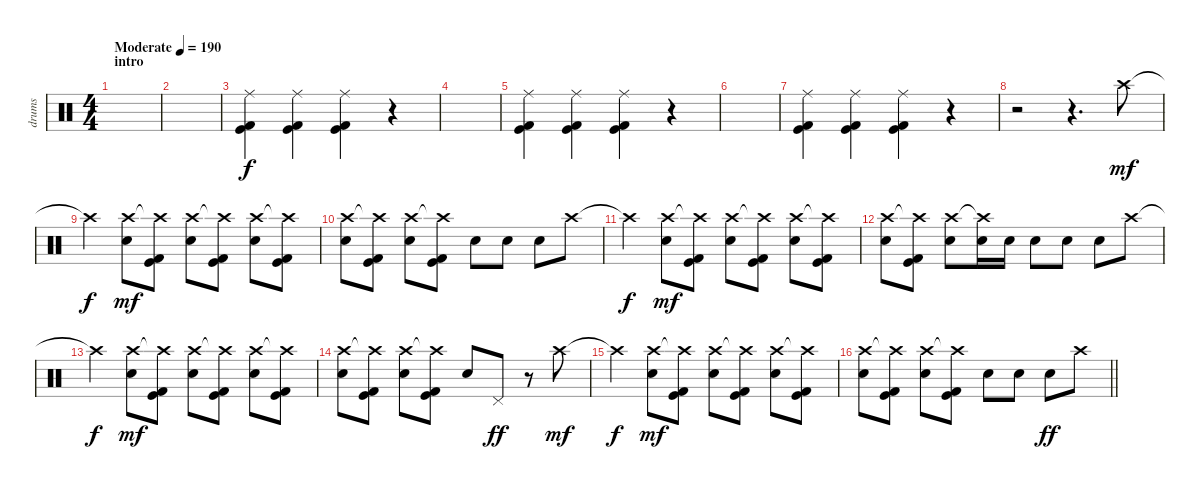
\track ("drums" "drums") {instrument percussion}
\staff {score}
\articulation defaults
\ts (4 4)
\section ("" "intro")
\tempo (190 "Moderate")
\clef neutral
\ks c
|
|
("Ride (middle)" "Kick (hit)" "Kick (hit) 2").4 ("Ride (middle)" "Kick (hit)" "Kick (hit) 2").4 ("Ride (middle)" "Kick (hit)" "Kick (hit) 2").4 r.4 |
|
("Ride (middle)" "Kick (hit)" "Kick (hit) 2").4 ("Ride (middle)" "Kick (hit)" "Kick (hit) 2").4 ("Ride (middle)" "Kick (hit)" "Kick (hit) 2").4 r.4 |
|
("Ride (middle)" "Kick (hit)" "Kick (hit) 2").4 ("Ride (middle)" "Kick (hit)" "Kick (hit) 2").4 ("Ride (middle)" "Kick (hit)" "Kick (hit) 2").4 r.4 |
r.2 r.4{d} "Crash high (hit)".8{dy mf} |
"Crash high (hit)"{t}.4{dy f} ("Crash high (hit)" "Electric Snare (hit)").8{dy mf} ("Crash high (hit)"{t} "Kick (hit) 2" "Kick (hit)").8 ("Crash high (hit)" "Electric Snare (hit)").8 ("Crash high (hit)"{t} "Kick (hit) 2" "Kick (hit)").8 ("Crash high (hit)" "Electric Snare (hit)").8 ("Crash high (hit)"{t} "Kick (hit) 2" "Kick (hit)").8 |
("Crash high (hit)" "Electric Snare (hit)").8 ("Crash high (hit)"{t} "Kick (hit) 2" "Kick (hit)").8 ("Crash high (hit)" "Electric Snare (hit)").8 ("Crash high (hit)"{t} "Kick (hit) 2" "Kick (hit)").8 "Electric Snare (hit)".8 "Electric Snare (hit)".8 "Electric Snare (hit)".8 "Crash high (hit)".8 |
"Crash high (hit)"{t}.4{dy f} ("Crash high (hit)" "Electric Snare (hit)").8{dy mf} ("Crash high (hit)"{t} "Kick (hit) 2" "Kick (hit)").8 ("Crash high (hit)" "Electric Snare (hit)").8 ("Crash high (hit)"{t} "Kick (hit) 2" "Kick (hit)").8 ("Crash high (hit)" "Electric Snare (hit)").8 ("Crash high (hit)"{t} "Kick (hit) 2" "Kick (hit)").8 |
("Crash high (hit)" "Electric Snare (hit)").8 ("Crash high (hit)"{t} "Kick (hit) 2" "Kick (hit)").8 ("Crash high (hit)" "Electric Snare (hit)").8 ("Crash high (hit)"{t} "Electric Snare (hit)").16 "Electric Snare (hit)".16 "Electric Snare (hit)".8 "Electric Snare (hit)".8 "Electric Snare (hit)".8 "Crash high (hit)".8 |
"Crash high (hit)"{t}.4{dy f} ("Crash high (hit)" "Electric Snare (hit)").8{dy mf} ("Crash high (hit)"{t} "Kick (hit) 2" "Kick (hit)").8 ("Crash high (hit)" "Electric Snare (hit)").8 ("Crash high (hit)"{t} "Kick (hit) 2" "Kick (hit)").8 ("Crash high (hit)" "Electric Snare (hit)").8 ("Crash high (hit)"{t} "Kick (hit) 2" "Kick (hit)").8 |
("Crash high (hit)" "Electric Snare (hit)").8 ("Crash high (hit)"{t} "Kick (hit) 2" "Kick (hit)").8 ("Crash high (hit)" "Electric Snare (hit)").8 ("Crash high (hit)"{t} "Kick (hit) 2" "Kick (hit)").8 "Electric Snare (hit)".8 "Pedal Hi-Hat (hit)".8{dy ff} r.8 "Crash high (hit)".8{dy mf} |
"Crash high (hit)"{t}.4{dy f} ("Crash high (hit)" "Electric Snare (hit)").8{dy mf} ("Crash high (hit)"{t} "Kick (hit) 2" "Kick (hit)").8 ("Crash high (hit)" "Electric Snare (hit)").8 ("Crash high (hit)"{t} "Kick (hit) 2" "Kick (hit)").8 ("Crash high (hit)" "Electric Snare (hit)").8 ("Crash high (hit)"{t} "Kick (hit) 2" "Kick (hit)").8 |
\barLineRight lightlight
("Crash high (hit)" "Electric Snare (hit)").8 ("Crash high (hit)"{t} "Kick (hit) 2" "Kick (hit)").8 ("Crash high (hit)" "Electric Snare (hit)").8 ("Crash high (hit)"{t} "Kick (hit) 2" "Kick (hit)").8 "Electric Snare (hit)".8 "Electric Snare (hit)".8 "Electric Snare (hit)".8{dy ff} "Crash high (hit)".8
